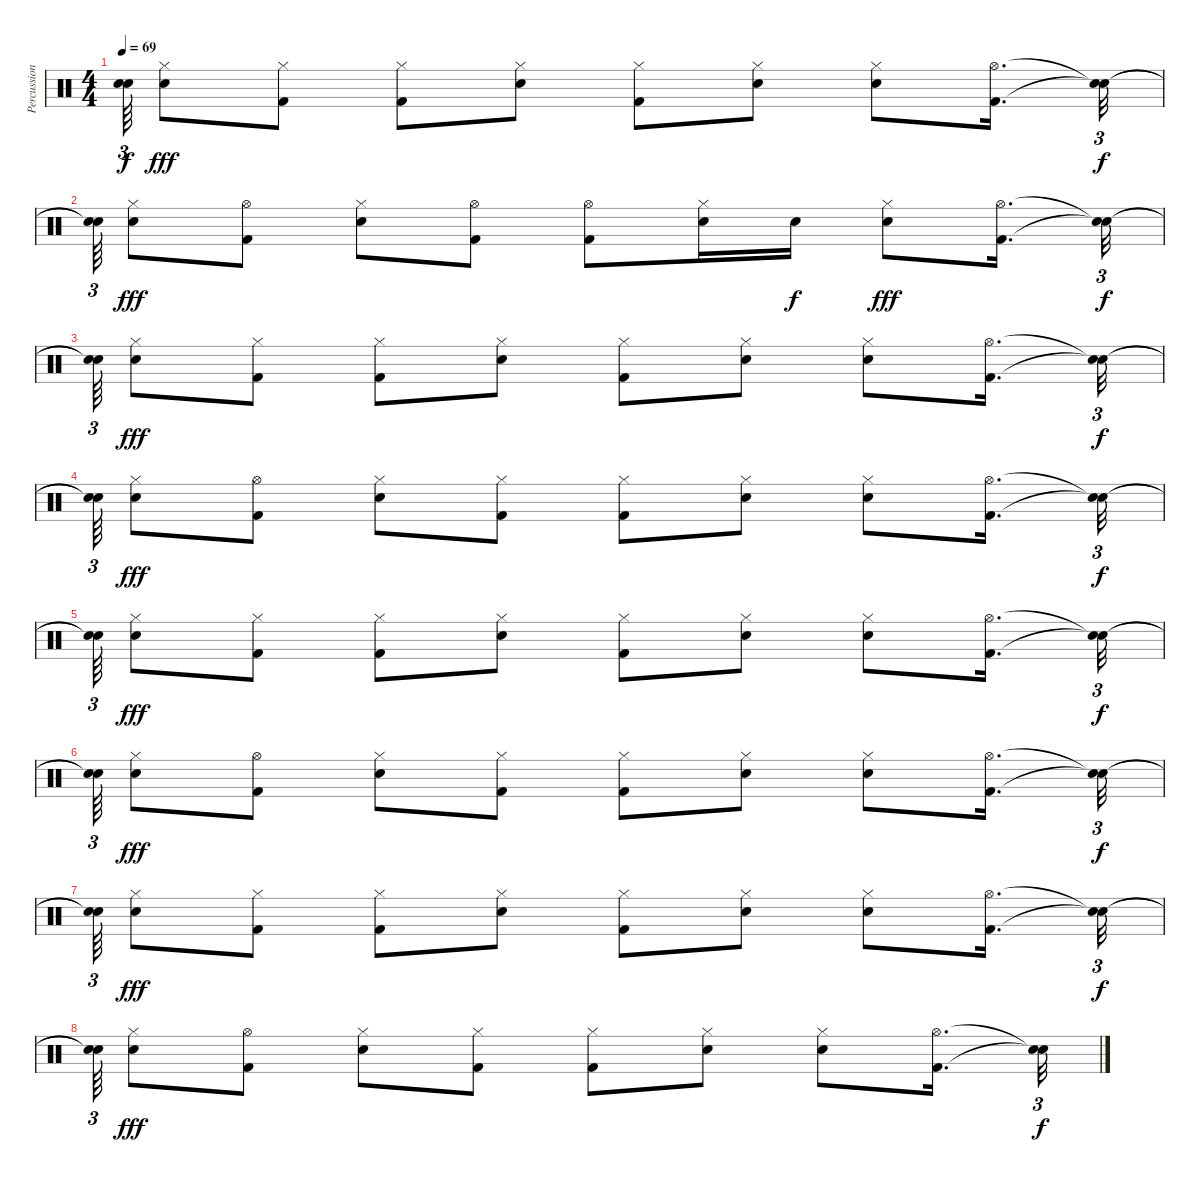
\track ("Percussioni" "Percussion") {instrument percussion}
\staff {score}
\articulation defaults
\ts (4 4)
\tempo 69
\clef neutral
\ks c
("Snare (hit)"{t} "Snare (hit)"{t}).64{tu (3 2) dy f} ("Hi-Hat (closed)" "Snare (hit) 2").8{dy fff} ("Hi-Hat (closed)" "Kick (hit) 2").8 ("Hi-Hat (closed)" "Kick (hit) 2").8 ("Hi-Hat (closed)" "Snare (hit) 2").8 ("Hi-Hat (closed)" "Kick (hit) 2").8 ("Hi-Hat (closed)" "Snare (hit) 2").8 ("Hi-Hat (closed)" "Snare (hit) 2").8 ("Hi-Hat (open)" "Kick (hit) 2").16{d} ("Snare (hit)"{t} "Snare (hit)"{t}).32{tu (3 2) dy f} |
("Snare (hit)"{t} "Snare (hit)"{t}).64{tu (3 2)} ("Hi-Hat (closed)" "Snare (hit) 2").8{dy fff} ("Hi-Hat (open)" "Kick (hit) 2").8 ("Hi-Hat (closed)" "Snare (hit) 2").8 ("Hi-Hat (open)" "Kick (hit) 2").8 ("Hi-Hat (open)" "Kick (hit) 2").8 ("Hi-Hat (closed)" "Snare (hit) 2").16 "Snare (hit) 2".16{dy f} ("Hi-Hat (closed)" "Snare (hit) 2").8{dy fff} ("Hi-Hat (open)" "Kick (hit) 2").16{d} ("Snare (hit)"{t} "Snare (hit)"{t}).32{tu (3 2) dy f} |
("Snare (hit)"{t} "Snare (hit)"{t}).64{tu (3 2)} ("Hi-Hat (closed)" "Snare (hit) 2").8{dy fff} ("Hi-Hat (closed)" "Kick (hit) 2").8 ("Hi-Hat (closed)" "Kick (hit) 2").8 ("Hi-Hat (closed)" "Snare (hit) 2").8 ("Hi-Hat (closed)" "Kick (hit) 2").8 ("Hi-Hat (closed)" "Snare (hit) 2").8 ("Hi-Hat (closed)" "Snare (hit) 2").8 ("Hi-Hat (open)" "Kick (hit) 2").16{d} ("Snare (hit)"{t} "Snare (hit)"{t}).32{tu (3 2) dy f} |
("Snare (hit)"{t} "Snare (hit)"{t}).64{tu (3 2)} ("Hi-Hat (closed)" "Snare (hit) 2").8{dy fff} ("Hi-Hat (open)" "Kick (hit) 2").8 ("Hi-Hat (closed)" "Snare (hit) 2").8 ("Hi-Hat (closed)" "Kick (hit) 2").8 ("Hi-Hat (closed)" "Kick (hit) 2").8 ("Hi-Hat (closed)" "Snare (hit) 2").8 ("Hi-Hat (closed)" "Snare (hit) 2").8 ("Hi-Hat (open)" "Kick (hit) 2").16{d} ("Snare (hit)"{t} "Snare (hit)"{t}).32{tu (3 2) dy f} |
("Snare (hit)"{t} "Snare (hit)"{t}).64{tu (3 2)} ("Hi-Hat (closed)" "Snare (hit) 2").8{dy fff} ("Hi-Hat (closed)" "Kick (hit) 2").8 ("Hi-Hat (closed)" "Kick (hit) 2").8 ("Hi-Hat (closed)" "Snare (hit) 2").8 ("Hi-Hat (closed)" "Kick (hit) 2").8 ("Hi-Hat (closed)" "Snare (hit) 2").8 ("Hi-Hat (closed)" "Snare (hit) 2").8 ("Hi-Hat (open)" "Kick (hit) 2").16{d} ("Snare (hit)"{t} "Snare (hit)"{t}).32{tu (3 2) dy f} |
("Snare (hit)"{t} "Snare (hit)"{t}).64{tu (3 2)} ("Hi-Hat (closed)" "Snare (hit) 2").8{dy fff} ("Hi-Hat (open)" "Kick (hit) 2").8 ("Hi-Hat (closed)" "Snare (hit) 2").8 ("Hi-Hat (closed)" "Kick (hit) 2").8 ("Hi-Hat (closed)" "Kick (hit) 2").8 ("Hi-Hat (closed)" "Snare (hit) 2").8 ("Hi-Hat (closed)" "Snare (hit) 2").8 ("Hi-Hat (open)" "Kick (hit) 2").16{d} ("Snare (hit)"{t} "Snare (hit)"{t}).32{tu (3 2) dy f} |
("Snare (hit)"{t} "Snare (hit)"{t}).64{tu (3 2)} ("Hi-Hat (closed)" "Snare (hit) 2").8{dy fff} ("Hi-Hat (closed)" "Kick (hit) 2").8 ("Hi-Hat (closed)" "Kick (hit) 2").8 ("Hi-Hat (closed)" "Snare (hit) 2").8 ("Hi-Hat (closed)" "Kick (hit) 2").8 ("Hi-Hat (closed)" "Snare (hit) 2").8 ("Hi-Hat (closed)" "Snare (hit) 2").8 ("Hi-Hat (open)" "Kick (hit) 2").16{d} ("Snare (hit)"{t} "Snare (hit)"{t}).32{tu (3 2) dy f} |
("Snare (hit)"{t} "Snare (hit)"{t}).64{tu (3 2)} ("Hi-Hat (closed)" "Snare (hit) 2").8{dy fff} ("Hi-Hat (open)" "Kick (hit) 2").8 ("Hi-Hat (closed)" "Snare (hit) 2").8 ("Hi-Hat (closed)" "Kick (hit) 2").8 ("Hi-Hat (closed)" "Kick (hit) 2").8 ("Hi-Hat (closed)" "Snare (hit) 2").8 ("Hi-Hat (closed)" "Snare (hit) 2").8 ("Hi-Hat (open)" "Kick (hit) 2").16{d} ("Snare (hit)"{t} "Snare (hit)"{t}).32{tu (3 2) dy f}
